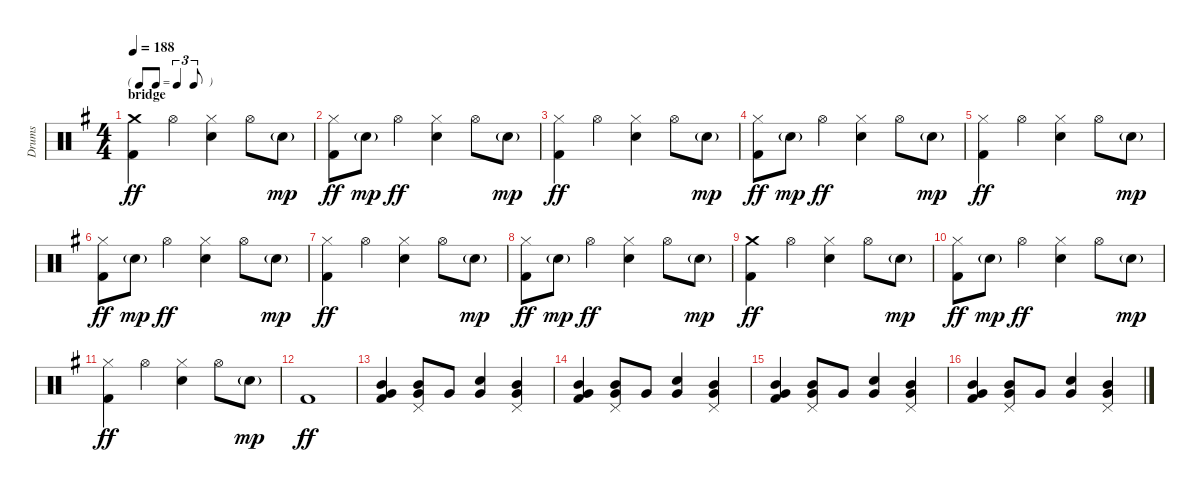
\track ("Drums" "Drums") {instrument percussion}
\staff {score}
\articulation defaults
\ts (4 4)
\tf triplet8th
\section ("" "bridge")
\tempo 188
\clef neutral
\ks g
("Crash medium (hit)" "Kick (hit) 2").4{dy ff} "Hi-Hat (open)".4 ("Hi-Hat (closed)" "Snare (hit) 2").4 "Hi-Hat (open)".8 "Snare (hit) 2"{g}.8{dy mp} |
("Hi-Hat (closed)" "Kick (hit) 2").8{dy ff} "Snare (hit) 2"{g}.8{dy mp} "Hi-Hat (open)".4{dy ff} ("Hi-Hat (closed)" "Snare (hit) 2").4 "Hi-Hat (open)".8 "Snare (hit) 2"{g}.8{dy mp} |
("Hi-Hat (closed)" "Kick (hit) 2").4{dy ff} "Hi-Hat (open)".4 ("Hi-Hat (closed)" "Snare (hit) 2").4 "Hi-Hat (open)".8 "Snare (hit) 2"{g}.8{dy mp} |
("Hi-Hat (closed)" "Kick (hit) 2").8{dy ff} "Snare (hit) 2"{g}.8{dy mp} "Hi-Hat (open)".4{dy ff} ("Hi-Hat (closed)" "Snare (hit) 2").4 "Hi-Hat (open)".8 "Snare (hit) 2"{g}.8{dy mp} |
("Hi-Hat (closed)" "Kick (hit) 2").4{dy ff} "Hi-Hat (open)".4 ("Hi-Hat (closed)" "Snare (hit) 2").4 "Hi-Hat (open)".8 "Snare (hit) 2"{g}.8{dy mp} |
("Hi-Hat (closed)" "Kick (hit) 2").8{dy ff} "Snare (hit) 2"{g}.8{dy mp} "Hi-Hat (open)".4{dy ff} ("Hi-Hat (closed)" "Snare (hit) 2").4 "Hi-Hat (open)".8 "Snare (hit) 2"{g}.8{dy mp} |
("Hi-Hat (closed)" "Kick (hit) 2").4{dy ff} "Hi-Hat (open)".4 ("Hi-Hat (closed)" "Snare (hit) 2").4 "Hi-Hat (open)".8 "Snare (hit) 2"{g}.8{dy mp} |
("Hi-Hat (closed)" "Kick (hit) 2").8{dy ff} "Snare (hit) 2"{g}.8{dy mp} "Hi-Hat (open)".4{dy ff} ("Hi-Hat (closed)" "Snare (hit) 2").4 "Hi-Hat (open)".8 "Snare (hit) 2"{g}.8{dy mp} |
("Crash medium (hit)" "Kick (hit) 2").4{dy ff} "Hi-Hat (open)".4 ("Hi-Hat (closed)" "Snare (hit) 2").4 "Hi-Hat (open)".8 "Snare (hit) 2"{g}.8{dy mp} |
("Hi-Hat (closed)" "Kick (hit) 2").8{dy ff} "Snare (hit) 2"{g}.8{dy mp} "Hi-Hat (open)".4{dy ff} ("Hi-Hat (closed)" "Snare (hit) 2").4 "Hi-Hat (open)".8 "Snare (hit) 2"{g}.8{dy mp} |
("Hi-Hat (closed)" "Kick (hit) 2").4{dy ff} "Hi-Hat (open)".4 ("Hi-Hat (closed)" "Snare (hit) 2").4 "Hi-Hat (open)".8 "Snare (hit) 2"{g}.8{dy mp} |
"Kick (hit) 2".1{dy ff} |
("Mid Tom (hit)" "Very Low Tom (hit)" "Kick (hit) 2").4 ("Pedal Hi-Hat (hit)" "Mid Tom (hit)" "Very Low Tom (hit)").8 "Very Low Tom (hit)".8 ("Snare (hit) 2" "Very Low Tom (hit)").4 ("Pedal Hi-Hat (hit)" "Mid Tom (hit)" "Very Low Tom (hit)").4 |
("Mid Tom (hit)" "Very Low Tom (hit)" "Kick (hit) 2").4 ("Pedal Hi-Hat (hit)" "Mid Tom (hit)" "Very Low Tom (hit)").8 "Very Low Tom (hit)".8 ("Snare (hit) 2" "Very Low Tom (hit)").4 ("Pedal Hi-Hat (hit)" "Mid Tom (hit)" "Very Low Tom (hit)").4 |
("Mid Tom (hit)" "Very Low Tom (hit)" "Kick (hit) 2").4 ("Pedal Hi-Hat (hit)" "Mid Tom (hit)" "Very Low Tom (hit)").8 "Very Low Tom (hit)".8 ("Snare (hit) 2" "Very Low Tom (hit)").4 ("Pedal Hi-Hat (hit)" "Mid Tom (hit)" "Very Low Tom (hit)").4 |
("Mid Tom (hit)" "Very Low Tom (hit)" "Kick (hit) 2").4 ("Pedal Hi-Hat (hit)" "Mid Tom (hit)" "Very Low Tom (hit)").8 "Very Low Tom (hit)".8 ("Snare (hit) 2" "Very Low Tom (hit)").4 ("Pedal Hi-Hat (hit)" "Mid Tom (hit)" "Very Low Tom (hit)").4
